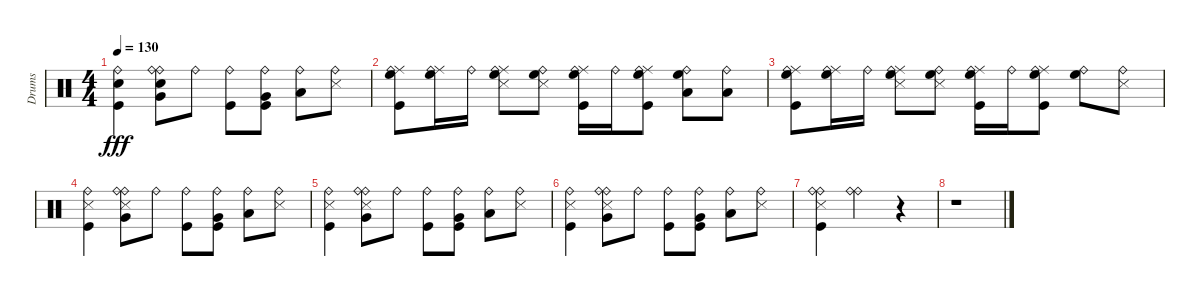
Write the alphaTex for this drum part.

\track ("Drums" "Drums") {instrument percussion}
\staff {score}
\articulation defaults
\ts (4 4)
\tempo 130
\clef neutral
\ks c
("Ride (bell)" "Electric Snare (hit)" "Kick (hit)").4{dy fff} ("Ride (bell)" "Very Low Tom (hit)" "Ride (bell)" "Electric Snare (hit)").8 "Ride (bell)".8 ("Ride (bell)" "Kick (hit)").8 ("Very Low Tom (hit)" "Ride (bell)" "Kick (hit)").8 ("Low Tom (hit)" "Ride (bell)").8 ("Ride (bell)" "Snare (side stick) 3").8 |
("Ride (middle)" "High Floor Tom (hit)" "Ride (bell)" "Kick (hit)").8 ("Ride (middle)" "High Floor Tom (hit)" "Ride (bell)").16 "Ride (bell)".16 ("Ride (middle)" "High Floor Tom (hit)" "Ride (bell)" "Snare (side stick) 3").8 ("High Floor Tom (hit)" "Ride (bell)" "Snare (side stick) 3").8 ("Ride (middle)" "High Floor Tom (hit)" "Ride (bell)" "Kick (hit)").16 "Ride (bell)".16 ("Ride (middle)" "High Floor Tom (hit)" "Ride (bell)" "Kick (hit)").8 ("High Floor Tom (hit)" "Ride (bell)" "Low Tom (hit)").8 ("Ride (bell)" "Low Tom (hit)").8 |
("Ride (middle)" "High Floor Tom (hit)" "Ride (bell)" "Kick (hit)").8 ("Ride (middle)" "High Floor Tom (hit)" "Ride (bell)").16 "Ride (bell)".16 ("Ride (middle)" "High Floor Tom (hit)" "Ride (bell)" "Snare (side stick) 3").8 ("High Floor Tom (hit)" "Ride (bell)" "Snare (side stick) 3").8 ("Ride (middle)" "High Floor Tom (hit)" "Ride (bell)" "Kick (hit)").16 "Ride (bell)".16 ("Ride (middle)" "High Floor Tom (hit)" "Ride (bell)" "Kick (hit)").8 ("High Floor Tom (hit)" "Ride (bell)").8 ("Ride (bell)" "Snare (side stick) 3").8 |
("Ride (bell)" "Snare (side stick) 3" "Kick (hit)").4 ("Ride (bell)" "Very Low Tom (hit)" "Ride (bell)" "Snare (side stick) 3").8 "Ride (bell)".8 ("Ride (bell)" "Kick (hit)").8 ("Very Low Tom (hit)" "Ride (bell)" "Kick (hit)").8 ("Low Tom (hit)" "Ride (bell)").8 ("Ride (bell)" "Snare (side stick) 3").8 |
("Ride (bell)" "Snare (side stick) 3" "Kick (hit)").4 ("Ride (bell)" "Very Low Tom (hit)" "Ride (bell)" "Snare (side stick) 3").8 "Ride (bell)".8 ("Ride (bell)" "Kick (hit)").8 ("Very Low Tom (hit)" "Ride (bell)" "Kick (hit)").8 ("Low Tom (hit)" "Ride (bell)").8 ("Ride (bell)" "Snare (side stick) 3").8 |
("Ride (bell)" "Snare (side stick) 3" "Kick (hit)").4 ("Ride (bell)" "Very Low Tom (hit)" "Ride (bell)" "Snare (side stick) 3").8 "Ride (bell)".8 ("Ride (bell)" "Kick (hit)").8 ("Very Low Tom (hit)" "Ride (bell)" "Kick (hit)").8 ("Low Tom (hit)" "Ride (bell)").8 ("Ride (bell)" "Snare (side stick) 3").8 |
("Ride (bell)" "Snare (side stick) 3" "Ride (bell)" "Kick (hit)").4 ("Ride (bell)" "Ride (bell)").2 r.4 |
r.1
